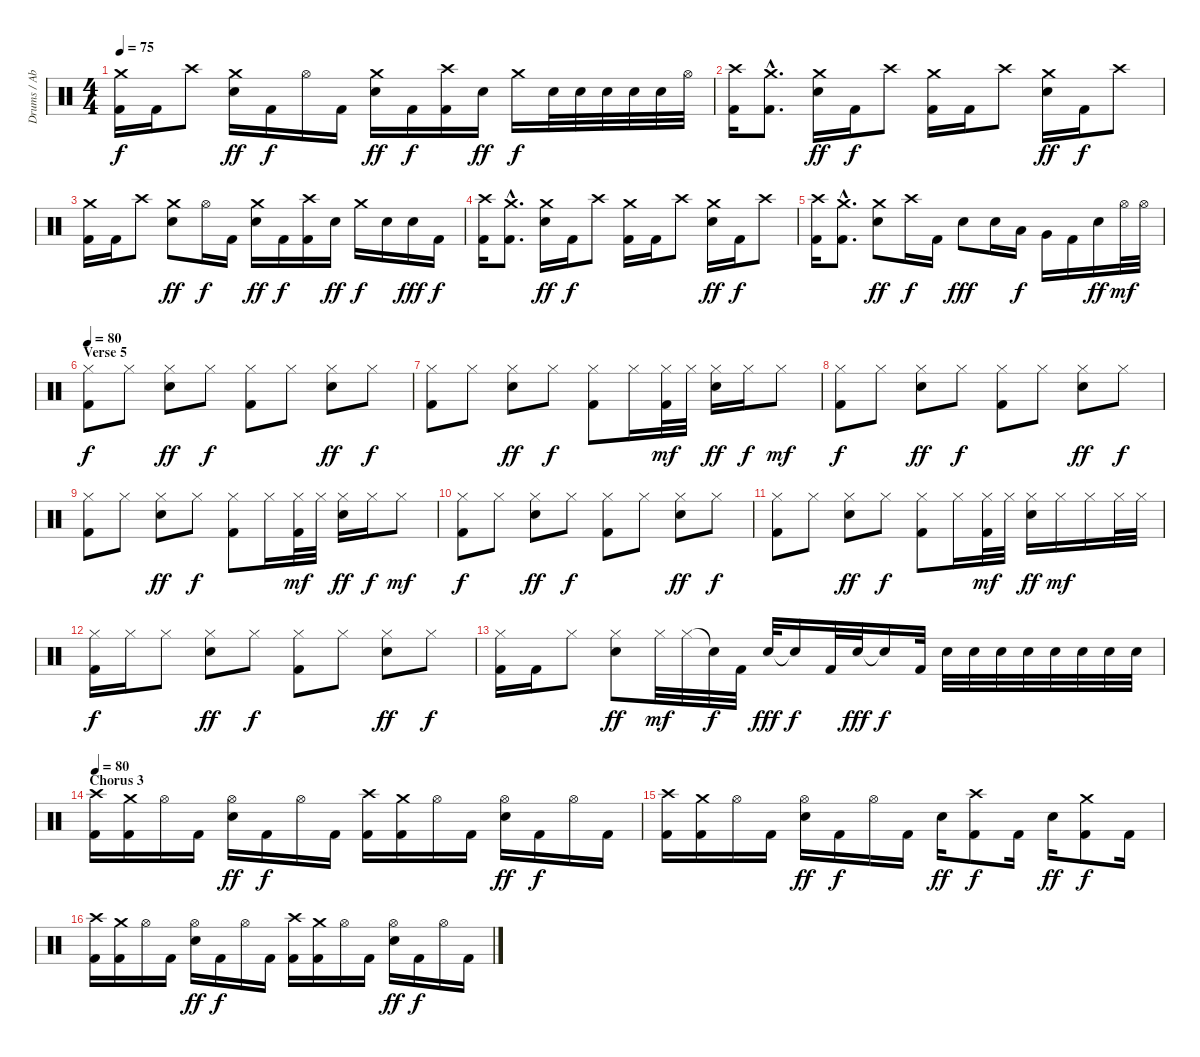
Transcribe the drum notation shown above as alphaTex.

\track ("Drums / Abe Cunningham" "Drums / Ab") {instrument percussion}
\staff {score}
\articulation defaults
\ts (4 4)
\tempo 75
\clef neutral
\ks c
("Crash medium (hit)" "Kick (hit) 2").16{dy f} "Kick (hit) 2".16 "Crash high (hit)".8 ("Crash medium (hit)" "Electric Snare (hit)").16{dy ff} "Kick (hit) 2".16{dy f} "Hi-Hat (open)".16 "Kick (hit) 2".16 ("Crash medium (hit)" "Electric Snare (hit)").16{dy ff} "Kick (hit) 2".16{dy f} ("Crash high (hit)" "Kick (hit) 2").16 "Electric Snare (hit)".16{dy ff} "Crash medium (hit)".16{dy f} "Electric Snare (hit)".32 "Electric Snare (hit)".32 "Electric Snare (hit)".32 "Electric Snare (hit)".32 "Electric Snare (hit)".32 "Hi-Hat (open)".32 |
("Crash high (hit)" "Kick (hit) 2").16 ("Crash medium (hit)"{hac} "Kick (hit) 2"{hac}).8{d} ("Crash medium (hit)" "Electric Snare (hit)").16{dy ff} "Kick (hit) 2".16{dy f} "Crash high (hit)".8 ("Crash medium (hit)" "Kick (hit) 2").16 "Kick (hit) 2".16 "Crash high (hit)".8 ("Crash medium (hit)" "Electric Snare (hit)").16{dy ff} "Kick (hit) 2".16{dy f} "Crash high (hit)".8 |
("Crash medium (hit)" "Kick (hit) 2").16 "Kick (hit) 2".16 "Crash high (hit)".8 ("Crash medium (hit)" "Electric Snare (hit)").8{dy ff} "Hi-Hat (open)".16{dy f} "Kick (hit) 2".16 ("Crash medium (hit)" "Electric Snare (hit)").16{dy ff} "Kick (hit) 2".16{dy f} ("Crash high (hit)" "Kick (hit) 2").16 "Electric Snare (hit)".16{dy ff} "Crash medium (hit)".16{dy f} "Electric Snare (hit)".16 "Electric Snare (hit)".16{dy fff} "Kick (hit) 2".16{dy f} |
("Crash high (hit)" "Kick (hit) 2").16 ("Crash medium (hit)"{hac} "Kick (hit) 2"{hac}).8{d} ("Crash medium (hit)" "Electric Snare (hit)").16{dy ff} "Kick (hit) 2".16{dy f} "Crash high (hit)".8 ("Crash medium (hit)" "Kick (hit) 2").16 "Kick (hit) 2".16 "Crash high (hit)".8 ("Crash medium (hit)" "Electric Snare (hit)").16{dy ff} "Kick (hit) 2".16{dy f} "Crash high (hit)".8 |
("Crash high (hit)" "Kick (hit) 2").16 ("Crash medium (hit)"{hac} "Kick (hit) 2"{hac}).8{d} ("Crash medium (hit)" "Electric Snare (hit)").8{dy ff} "Crash high (hit)".16{dy f} "Kick (hit) 2".16 "Electric Snare (hit)".8{dy fff} "Electric Snare (hit)".16 "Low Tom (hit)".16{dy f} "Very Low Tom (hit)".16 "Kick (hit) 2".16 "Electric Snare (hit)".16{dy ff} "Hi-Hat (open)".32{dy mf} "Hi-Hat (open)".32 |
\section ("" "Verse 5")
\tempo 80
("Hi-Hat (closed)" "Kick (hit) 2").8{dy f} "Hi-Hat (closed)".8 ("Hi-Hat (closed)" "Electric Snare (hit)").8{dy ff} "Hi-Hat (closed)".8{dy f} ("Hi-Hat (closed)" "Kick (hit) 2").8 "Hi-Hat (closed)".8 ("Hi-Hat (closed)" "Electric Snare (hit)").8{dy ff} "Hi-Hat (closed)".8{dy f} |
("Hi-Hat (closed)" "Kick (hit) 2").8 "Hi-Hat (closed)".8 ("Hi-Hat (closed)" "Electric Snare (hit)").8{dy ff} "Hi-Hat (closed)".8{dy f} ("Hi-Hat (closed)" "Kick (hit) 2").8 "Hi-Hat (closed)".16 ("Hi-Hat (closed)" "Kick (hit) 2").32{dy mf} "Hi-Hat (closed)".32 ("Hi-Hat (closed)" "Electric Snare (hit)").16{dy ff} "Hi-Hat (closed)".16{dy f} "Hi-Hat (closed)".8{dy mf} |
("Hi-Hat (closed)" "Kick (hit) 2").8{dy f} "Hi-Hat (closed)".8 ("Hi-Hat (closed)" "Electric Snare (hit)").8{dy ff} "Hi-Hat (closed)".8{dy f} ("Hi-Hat (closed)" "Kick (hit) 2").8 "Hi-Hat (closed)".8 ("Hi-Hat (closed)" "Electric Snare (hit)").8{dy ff} "Hi-Hat (closed)".8{dy f} |
("Hi-Hat (closed)" "Kick (hit) 2").8 "Hi-Hat (closed)".8 ("Hi-Hat (closed)" "Electric Snare (hit)").8{dy ff} "Hi-Hat (closed)".8{dy f} ("Hi-Hat (closed)" "Kick (hit) 2").8 "Hi-Hat (closed)".16 ("Hi-Hat (closed)" "Kick (hit) 2").32{dy mf} "Hi-Hat (closed)".32 ("Hi-Hat (closed)" "Electric Snare (hit)").16{dy ff} "Hi-Hat (closed)".16{dy f} "Hi-Hat (closed)".8{dy mf} |
("Hi-Hat (closed)" "Kick (hit) 2").8{dy f} "Hi-Hat (closed)".8 ("Hi-Hat (closed)" "Electric Snare (hit)").8{dy ff} "Hi-Hat (closed)".8{dy f} ("Hi-Hat (closed)" "Kick (hit) 2").8 "Hi-Hat (closed)".8 ("Hi-Hat (closed)" "Electric Snare (hit)").8{dy ff} "Hi-Hat (closed)".8{dy f} |
("Hi-Hat (closed)" "Kick (hit) 2").8 "Hi-Hat (closed)".8 ("Hi-Hat (closed)" "Electric Snare (hit)").8{dy ff} "Hi-Hat (closed)".8{dy f} ("Hi-Hat (closed)" "Kick (hit) 2").8 "Hi-Hat (closed)".16 ("Hi-Hat (closed)" "Kick (hit) 2").32{dy mf} "Hi-Hat (closed)".32 ("Hi-Hat (closed)" "Electric Snare (hit)").16{dy ff} "Hi-Hat (closed)".16{dy mf} "Hi-Hat (closed)".16 "Hi-Hat (closed)".32 "Hi-Hat (closed)".32 |
("Hi-Hat (closed)" "Kick (hit) 2").16{dy f} "Hi-Hat (closed)".16 "Hi-Hat (closed)".8 ("Hi-Hat (closed)" "Electric Snare (hit)").8{dy ff} "Hi-Hat (closed)".8{dy f} ("Hi-Hat (closed)" "Kick (hit) 2").8 "Hi-Hat (closed)".8 ("Hi-Hat (closed)" "Electric Snare (hit)").8{dy ff} "Hi-Hat (closed)".8{dy f} |
("Hi-Hat (closed)" "Kick (hit) 2").16 "Kick (hit) 2".16 "Hi-Hat (closed)".8 ("Hi-Hat (closed)" "Electric Snare (hit)").8{dy ff} "Hi-Hat (closed)".32{dy mf} "Hi-Hat (closed)".32 "Snare (hit)"{t}.32{dy f} "Kick (hit) 2".32 "Electric Snare (hit)".32{dy fff} "Snare (hit)"{t}.16{dy f} "Kick (hit) 2".32 "Electric Snare (hit)".32{dy fff} "Snare (hit)"{t}.16{dy f} "Kick (hit) 2".32 "Electric Snare (hit)".32 "Electric Snare (hit)".32 "Electric Snare (hit)".32 "Electric Snare (hit)".32 "Electric Snare (hit)".32 "Electric Snare (hit)".32 "Electric Snare (hit)".32 "Electric Snare (hit)".32 |
\section ("" "Chorus 3")
\tempo 80
("Crash high (hit)" "Kick (hit) 2").16 ("Crash medium (hit)" "Kick (hit) 2").16 "Hi-Hat (open)".16 "Kick (hit) 2".16 ("Hi-Hat (open)" "Electric Snare (hit)").16{dy ff} "Kick (hit) 2".16{dy f} "Hi-Hat (open)".16 "Kick (hit) 2".16 ("Crash high (hit)" "Kick (hit) 2").16 ("Crash medium (hit)" "Kick (hit) 2").16 "Hi-Hat (open)".16 "Kick (hit) 2".16 ("Hi-Hat (open)" "Electric Snare (hit)").16{dy ff} "Kick (hit) 2".16{dy f} "Hi-Hat (open)".16 "Kick (hit) 2".16 |
("Crash high (hit)" "Kick (hit) 2").16 ("Crash medium (hit)" "Kick (hit) 2").16 "Hi-Hat (open)".16 "Kick (hit) 2".16 ("Hi-Hat (open)" "Electric Snare (hit)").16{dy ff} "Kick (hit) 2".16{dy f} "Hi-Hat (open)".16 "Kick (hit) 2".16 "Electric Snare (hit)".16{dy ff} ("Crash high (hit)" "Kick (hit) 2").8{dy f} "Kick (hit) 2".16 "Electric Snare (hit)".16{dy ff} ("Crash medium (hit)" "Kick (hit) 2").8{dy f} "Kick (hit) 2".16 |
("Crash high (hit)" "Kick (hit) 2").16 ("Crash medium (hit)" "Kick (hit) 2").16 "Hi-Hat (open)".16 "Kick (hit) 2".16 ("Hi-Hat (open)" "Electric Snare (hit)").16{dy ff} "Kick (hit) 2".16{dy f} "Hi-Hat (open)".16 "Kick (hit) 2".16 ("Crash high (hit)" "Kick (hit) 2").16 ("Crash medium (hit)" "Kick (hit) 2").16 "Hi-Hat (open)".16 "Kick (hit) 2".16 ("Hi-Hat (open)" "Electric Snare (hit)").16{dy ff} "Kick (hit) 2".16{dy f} "Hi-Hat (open)".16 "Kick (hit) 2".16
